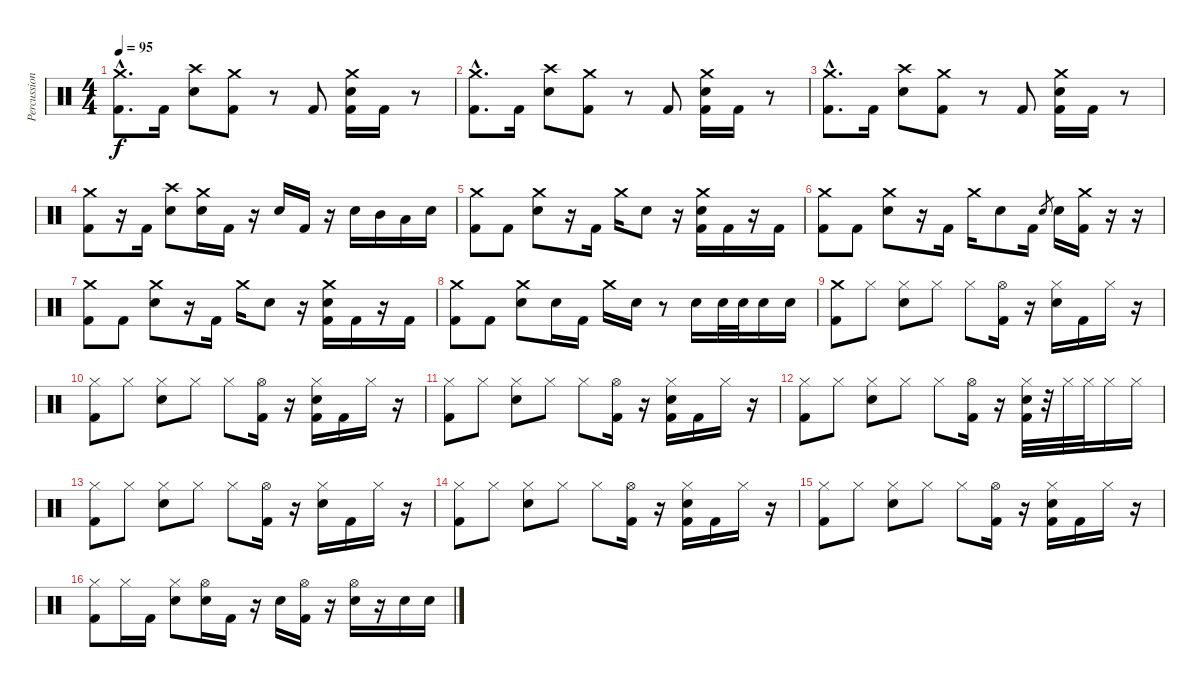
\track ("Percussion" "Percussion") {instrument percussion}
\staff {score}
\articulation defaults
\ts (4 4)
\tempo 95
\clef neutral
\ks c
("Crash medium (hit)"{hac} "Kick (hit) 2"{hac}).8{d dy f} "Kick (hit) 2".16 ("Crash high (hit)" "Electric Snare (hit)").8 ("Crash medium (hit)" "Kick (hit) 2").8 r.8 "Kick (hit) 2".8 ("Crash medium (hit)" "Electric Snare (hit)" "Kick (hit) 2").16 "Kick (hit) 2".16 r.8 |
("Crash medium (hit)"{hac} "Kick (hit) 2"{hac}).8{d} "Kick (hit) 2".16 ("Crash high (hit)" "Electric Snare (hit)").8 ("Crash medium (hit)" "Kick (hit) 2").8 r.8 "Kick (hit) 2".8 ("Crash medium (hit)" "Electric Snare (hit)" "Kick (hit) 2").16 "Kick (hit) 2".16 r.8 |
("Crash medium (hit)"{hac} "Kick (hit) 2"{hac}).8{d} "Kick (hit) 2".16 ("Crash high (hit)" "Electric Snare (hit)").8 ("Crash medium (hit)" "Kick (hit) 2").8 r.8 "Kick (hit) 2".8 ("Crash medium (hit)" "Electric Snare (hit)" "Kick (hit) 2").16 "Kick (hit) 2".16 r.8 |
("Crash medium (hit)" "Kick (hit) 2").8 r.16 "Kick (hit) 2".16 ("Crash high (hit)" "Electric Snare (hit)").8 ("Crash medium (hit)" "Electric Snare (hit)").16 "Kick (hit) 2".16 r.16 "Electric Snare (hit)".16 "Kick (hit) 2".16 r.16 "Electric Snare (hit)".16 "Mid Tom (hit)".16 "Low Tom (hit)".16 "Electric Snare (hit)".16 |
("Crash medium (hit)" "Kick (hit) 2").8 "Kick (hit) 2".8 ("Crash medium (hit)" "Electric Snare (hit)").8 r.16 "Kick (hit) 2".16 "Crash medium (hit)".16 "Electric Snare (hit)".8 r.16 ("Crash medium (hit)" "Electric Snare (hit)" "Kick (hit) 2").16 "Kick (hit) 2".16 r.16 "Kick (hit) 2".16 |
("Crash medium (hit)" "Kick (hit) 2").8 "Kick (hit) 2".8 ("Crash medium (hit)" "Electric Snare (hit)").8 r.16 "Kick (hit) 2".16 "Crash medium (hit)".16 "Electric Snare (hit)".8 "Kick (hit) 2".16 "Electric Snare (hit)".8{gr} "Electric Snare (hit)".16 ("Crash medium (hit)" "Kick (hit) 2").16 r.16 r.16 |
("Crash medium (hit)" "Kick (hit) 2").8 "Kick (hit) 2".8 ("Crash medium (hit)" "Electric Snare (hit)").8 r.16 "Kick (hit) 2".16 "Crash medium (hit)".16 "Electric Snare (hit)".8 r.16 ("Crash medium (hit)" "Electric Snare (hit)" "Kick (hit) 2").16 "Kick (hit) 2".16 r.16 "Kick (hit) 2".16 |
("Crash medium (hit)" "Kick (hit) 2").8 "Kick (hit) 2".8 ("Crash medium (hit)" "Electric Snare (hit)").8 "Electric Snare (hit)".16 "Kick (hit) 2".16 "Crash medium (hit)".16 "Electric Snare (hit)".16 r.8 "Electric Snare (hit)".16 "Electric Snare (hit)".32 "Electric Snare (hit)".32 "Electric Snare (hit)".16 "Electric Snare (hit)".16 |
("Crash medium (hit)" "Kick (hit) 2").8 "Hi-Hat (closed)".8 ("Hi-Hat (closed)" "Electric Snare (hit)").8 "Hi-Hat (closed)".8 "Hi-Hat (closed)".8 ("Hi-Hat (open)" "Kick (hit) 2").16 r.16 ("Hi-Hat (closed)" "Electric Snare (hit)").16 "Kick (hit) 2".16 "Hi-Hat (closed)".16 r.16 |
("Hi-Hat (closed)" "Kick (hit) 2").8 "Hi-Hat (closed)".8 ("Hi-Hat (closed)" "Electric Snare (hit)").8 "Hi-Hat (closed)".8 "Hi-Hat (closed)".8 ("Hi-Hat (open)" "Kick (hit) 2").16 r.16 ("Hi-Hat (closed)" "Electric Snare (hit)" "Kick (hit) 2").16 "Kick (hit) 2".16 "Hi-Hat (closed)".16 r.16 |
("Hi-Hat (closed)" "Kick (hit) 2").8 "Hi-Hat (closed)".8 ("Hi-Hat (closed)" "Electric Snare (hit)").8 "Hi-Hat (closed)".8 "Hi-Hat (closed)".8 ("Hi-Hat (open)" "Kick (hit) 2").16 r.16 ("Hi-Hat (closed)" "Electric Snare (hit)" "Kick (hit) 2").16 "Kick (hit) 2".16 "Hi-Hat (closed)".16 r.16 |
("Hi-Hat (closed)" "Kick (hit) 2").8 "Hi-Hat (closed)".8 ("Hi-Hat (closed)" "Electric Snare (hit)").8 "Hi-Hat (closed)".8 "Hi-Hat (closed)".8 ("Hi-Hat (open)" "Kick (hit) 2").16 r.16 ("Hi-Hat (closed)" "Electric Snare (hit)" "Kick (hit) 2").32 r.32 "Hi-Hat (closed)".32 "Hi-Hat (closed)".32 "Hi-Hat (closed)".16 "Hi-Hat (closed)".16 |
("Hi-Hat (closed)" "Kick (hit) 2").8 "Hi-Hat (closed)".8 ("Hi-Hat (closed)" "Electric Snare (hit)").8 "Hi-Hat (closed)".8 "Hi-Hat (closed)".8 ("Hi-Hat (open)" "Kick (hit) 2").16 r.16 ("Hi-Hat (closed)" "Electric Snare (hit)").16 "Kick (hit) 2".16 "Hi-Hat (closed)".16 r.16 |
("Hi-Hat (closed)" "Kick (hit) 2").8 "Hi-Hat (closed)".8 ("Hi-Hat (closed)" "Electric Snare (hit)").8 "Hi-Hat (closed)".8 "Hi-Hat (closed)".8 ("Hi-Hat (open)" "Kick (hit) 2").16 r.16 ("Hi-Hat (closed)" "Electric Snare (hit)" "Kick (hit) 2").16 "Kick (hit) 2".16 "Hi-Hat (closed)".16 r.16 |
("Hi-Hat (closed)" "Kick (hit) 2").8 "Hi-Hat (closed)".8 ("Hi-Hat (closed)" "Electric Snare (hit)").8 "Hi-Hat (closed)".8 "Hi-Hat (closed)".8 ("Hi-Hat (open)" "Kick (hit) 2").16 r.16 ("Hi-Hat (closed)" "Electric Snare (hit)" "Kick (hit) 2").16 "Kick (hit) 2".16 "Hi-Hat (closed)".16 r.16 |
("Hi-Hat (closed)" "Kick (hit) 2").8 "Hi-Hat (closed)".16 "Kick (hit) 2".16 ("Hi-Hat (closed)" "Electric Snare (hit)").8 ("Hi-Hat (open)" "Electric Snare (hit)").16 "Kick (hit) 2".16 r.16 "Electric Snare (hit)".16 ("Hi-Hat (open)" "Kick (hit) 2").16 r.16 ("Hi-Hat (open)" "Electric Snare (hit)").16 r.16 "Electric Snare (hit)".16 "Electric Snare (hit)".16
